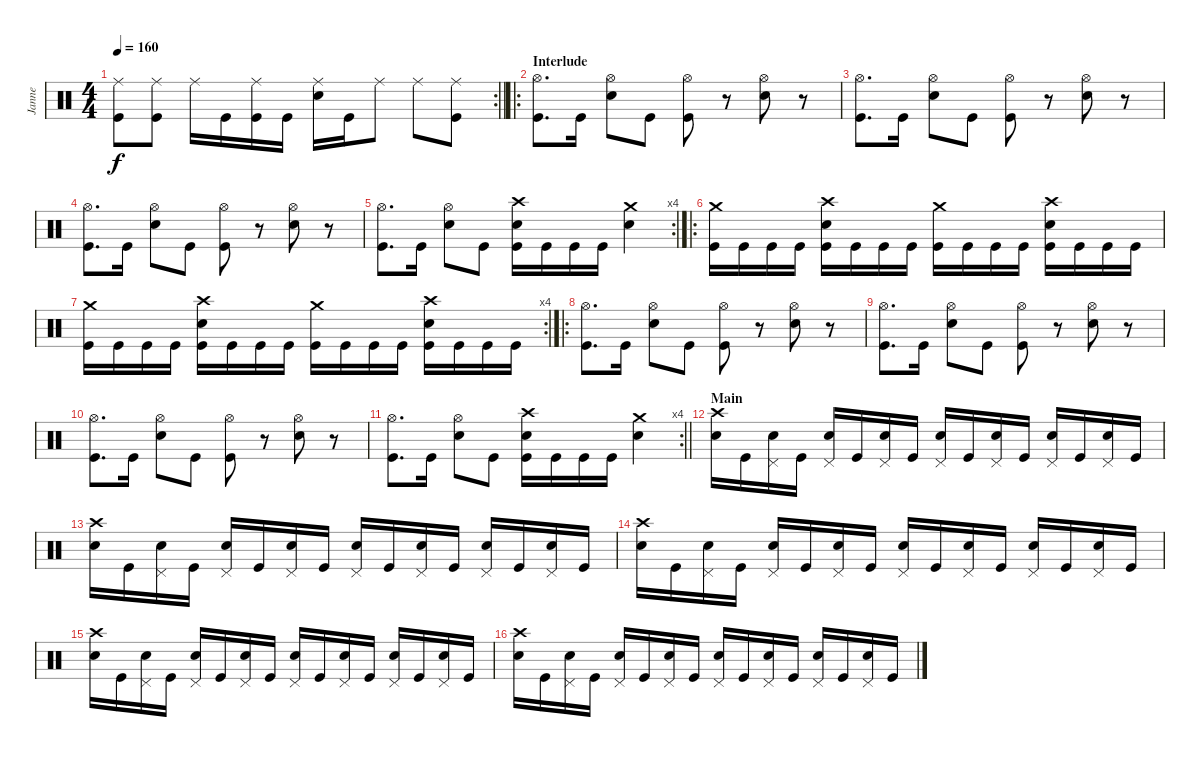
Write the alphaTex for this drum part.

\track ("Janne" "Janne") {instrument percussion}
\staff {score}
\articulation defaults
\rc 2
\ts (4 4)
\tempo 160
\clef neutral
\barLineRight lightlight
\ks c
("Ride (middle)" "Kick (hit)").8{dy f} ("Ride (middle)" "Kick (hit)").8 "Ride (middle)".16 "Kick (hit)".16 ("Ride (middle)" "Kick (hit)").16 "Kick (hit)".16 ("Ride (middle)" "Snare (hit) 2").16 "Kick (hit)".16 "Ride (middle)".8 "Ride (middle)".8 ("Ride (middle)" "Kick (hit)").8 |
\ro
\section ("" "Interlude")
("Hi-Hat (open)" "Kick (hit)").8{d} "Kick (hit)".16 ("Hi-Hat (open)" "Snare (hit) 2").8 "Kick (hit)".8 ("Hi-Hat (open)" "Kick (hit)").8 r.8 ("Hi-Hat (open)" "Snare (hit) 2").8 r.8 |
("Hi-Hat (open)" "Kick (hit)").8{d} "Kick (hit)".16 ("Hi-Hat (open)" "Snare (hit) 2").8 "Kick (hit)".8 ("Hi-Hat (open)" "Kick (hit)").8 r.8 ("Hi-Hat (open)" "Snare (hit) 2").8 r.8 |
("Hi-Hat (open)" "Kick (hit)").8{d} "Kick (hit)".16 ("Hi-Hat (open)" "Snare (hit) 2").8 "Kick (hit)".8 ("Hi-Hat (open)" "Kick (hit)").8 r.8 ("Hi-Hat (open)" "Snare (hit) 2").8 r.8 |
\rc 4
("Hi-Hat (open)" "Kick (hit)").8{d} "Kick (hit)".16 ("Hi-Hat (open)" "Snare (hit) 2").8 "Kick (hit)".8 ("Crash high (hit)" "Snare (hit) 2" "Kick (hit)").16 "Kick (hit)".16 "Kick (hit)".16 "Kick (hit)".16 ("Crash medium (hit)" "Snare (hit) 2").4 |
\ro
("Crash medium (hit)" "Kick (hit)").16 "Kick (hit)".16 "Kick (hit)".16 "Kick (hit)".16 ("Crash high (hit)" "Snare (hit) 2" "Kick (hit)").16 "Kick (hit)".16 "Kick (hit)".16 "Kick (hit)".16 ("Crash medium (hit)" "Kick (hit)").16 "Kick (hit)".16 "Kick (hit)".16 "Kick (hit)".16 ("Crash high (hit)" "Snare (hit) 2" "Kick (hit)").16 "Kick (hit)".16 "Kick (hit)".16 "Kick (hit)".16 |
\rc 4
("Crash medium (hit)" "Kick (hit)").16 "Kick (hit)".16 "Kick (hit)".16 "Kick (hit)".16 ("Crash high (hit)" "Snare (hit) 2" "Kick (hit)").16 "Kick (hit)".16 "Kick (hit)".16 "Kick (hit)".16 ("Crash medium (hit)" "Kick (hit)").16 "Kick (hit)".16 "Kick (hit)".16 "Kick (hit)".16 ("Crash high (hit)" "Snare (hit) 2" "Kick (hit)").16 "Kick (hit)".16 "Kick (hit)".16 "Kick (hit)".16 |
\ro
("Hi-Hat (open)" "Kick (hit)").8{d} "Kick (hit)".16 ("Hi-Hat (open)" "Snare (hit) 2").8 "Kick (hit)".8 ("Hi-Hat (open)" "Kick (hit)").8 r.8 ("Hi-Hat (open)" "Snare (hit) 2").8 r.8 |
("Hi-Hat (open)" "Kick (hit)").8{d} "Kick (hit)".16 ("Hi-Hat (open)" "Snare (hit) 2").8 "Kick (hit)".8 ("Hi-Hat (open)" "Kick (hit)").8 r.8 ("Hi-Hat (open)" "Snare (hit) 2").8 r.8 |
("Hi-Hat (open)" "Kick (hit)").8{d} "Kick (hit)".16 ("Hi-Hat (open)" "Snare (hit) 2").8 "Kick (hit)".8 ("Hi-Hat (open)" "Kick (hit)").8 r.8 ("Hi-Hat (open)" "Snare (hit) 2").8 r.8 |
\rc 4
\barLineRight lightlight
("Hi-Hat (open)" "Kick (hit)").8{d} "Kick (hit)".16 ("Hi-Hat (open)" "Snare (hit) 2").8 "Kick (hit)".8 ("Crash high (hit)" "Snare (hit) 2" "Kick (hit)").16 "Kick (hit)".16 "Kick (hit)".16 "Kick (hit)".16 ("Crash medium (hit)" "Snare (hit) 2").4 |
\section ("" "Main")
("Crash high (hit)" "Snare (hit) 2").16 "Kick (hit)".16 ("Pedal Hi-Hat (hit)" "Snare (hit) 2").16 "Kick (hit)".16 ("Pedal Hi-Hat (hit)" "Snare (hit) 2").16 "Kick (hit)".16 ("Pedal Hi-Hat (hit)" "Snare (hit) 2").16 "Kick (hit)".16 ("Pedal Hi-Hat (hit)" "Snare (hit) 2").16 "Kick (hit)".16 ("Pedal Hi-Hat (hit)" "Snare (hit) 2").16 "Kick (hit)".16 ("Pedal Hi-Hat (hit)" "Snare (hit) 2").16 "Kick (hit)".16 ("Pedal Hi-Hat (hit)" "Snare (hit) 2").16 "Kick (hit)".16 |
("Crash high (hit)" "Snare (hit) 2").16 "Kick (hit)".16 ("Pedal Hi-Hat (hit)" "Snare (hit) 2").16 "Kick (hit)".16 ("Pedal Hi-Hat (hit)" "Snare (hit) 2").16 "Kick (hit)".16 ("Pedal Hi-Hat (hit)" "Snare (hit) 2").16 "Kick (hit)".16 ("Pedal Hi-Hat (hit)" "Snare (hit) 2").16 "Kick (hit)".16 ("Pedal Hi-Hat (hit)" "Snare (hit) 2").16 "Kick (hit)".16 ("Pedal Hi-Hat (hit)" "Snare (hit) 2").16 "Kick (hit)".16 ("Pedal Hi-Hat (hit)" "Snare (hit) 2").16 "Kick (hit)".16 |
("Crash high (hit)" "Snare (hit) 2").16 "Kick (hit)".16 ("Pedal Hi-Hat (hit)" "Snare (hit) 2").16 "Kick (hit)".16 ("Pedal Hi-Hat (hit)" "Snare (hit) 2").16 "Kick (hit)".16 ("Pedal Hi-Hat (hit)" "Snare (hit) 2").16 "Kick (hit)".16 ("Pedal Hi-Hat (hit)" "Snare (hit) 2").16 "Kick (hit)".16 ("Pedal Hi-Hat (hit)" "Snare (hit) 2").16 "Kick (hit)".16 ("Pedal Hi-Hat (hit)" "Snare (hit) 2").16 "Kick (hit)".16 ("Pedal Hi-Hat (hit)" "Snare (hit) 2").16 "Kick (hit)".16 |
("Crash high (hit)" "Snare (hit) 2").16 "Kick (hit)".16 ("Pedal Hi-Hat (hit)" "Snare (hit) 2").16 "Kick (hit)".16 ("Pedal Hi-Hat (hit)" "Snare (hit) 2").16 "Kick (hit)".16 ("Pedal Hi-Hat (hit)" "Snare (hit) 2").16 "Kick (hit)".16 ("Pedal Hi-Hat (hit)" "Snare (hit) 2").16 "Kick (hit)".16 ("Pedal Hi-Hat (hit)" "Snare (hit) 2").16 "Kick (hit)".16 ("Pedal Hi-Hat (hit)" "Snare (hit) 2").16 "Kick (hit)".16 ("Pedal Hi-Hat (hit)" "Snare (hit) 2").16 "Kick (hit)".16 |
("Crash high (hit)" "Snare (hit) 2").16 "Kick (hit)".16 ("Pedal Hi-Hat (hit)" "Snare (hit) 2").16 "Kick (hit)".16 ("Pedal Hi-Hat (hit)" "Snare (hit) 2").16 "Kick (hit)".16 ("Pedal Hi-Hat (hit)" "Snare (hit) 2").16 "Kick (hit)".16 ("Pedal Hi-Hat (hit)" "Snare (hit) 2").16 "Kick (hit)".16 ("Pedal Hi-Hat (hit)" "Snare (hit) 2").16 "Kick (hit)".16 ("Pedal Hi-Hat (hit)" "Snare (hit) 2").16 "Kick (hit)".16 ("Pedal Hi-Hat (hit)" "Snare (hit) 2").16 "Kick (hit)".16
